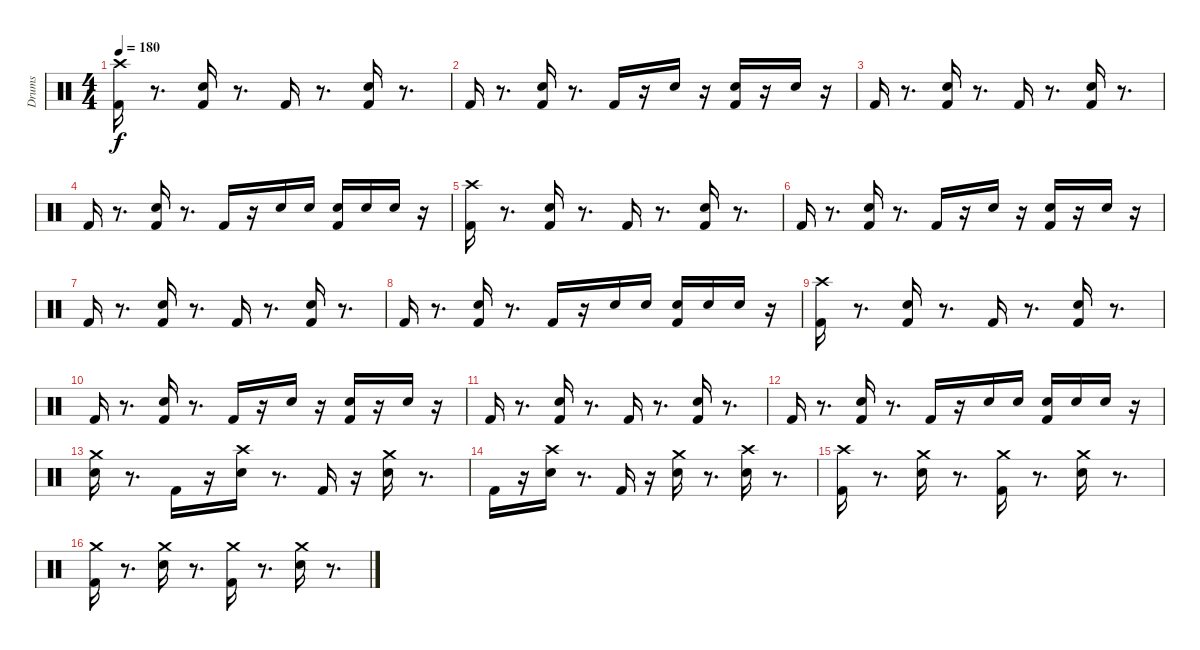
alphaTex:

\track ("Drums" "Drums") {instrument percussion}
\staff {score}
\articulation defaults
\ts (4 4)
\tempo 180
\clef neutral
\ks c
("Kick (hit) 2" "Crash high (hit)").16{dy f} r.8{d} ("Kick (hit) 2" "Snare (hit) 2").16 r.8{d} "Kick (hit) 2".16 r.8{d} ("Kick (hit) 2" "Snare (hit) 2").16 r.8{d} |
"Kick (hit) 2".16 r.8{d} ("Kick (hit) 2" "Snare (hit) 2").16 r.8{d} "Kick (hit) 2".16 r.16 "Snare (hit) 2".16 r.16 ("Kick (hit) 2" "Snare (hit) 2").16 r.16 "Snare (hit) 2".16 r.16 |
"Kick (hit) 2".16 r.8{d} ("Kick (hit) 2" "Snare (hit) 2").16 r.8{d} "Kick (hit) 2".16 r.8{d} ("Kick (hit) 2" "Snare (hit) 2").16 r.8{d} |
"Kick (hit) 2".16 r.8{d} ("Kick (hit) 2" "Snare (hit) 2").16 r.8{d} "Kick (hit) 2".16 r.16 "Snare (hit) 2".16 "Snare (hit) 2".16 ("Kick (hit) 2" "Snare (hit) 2").16 "Snare (hit) 2".16 "Snare (hit) 2".16 r.16 |
("Kick (hit) 2" "Crash high (hit)").16 r.8{d} ("Kick (hit) 2" "Snare (hit) 2").16 r.8{d} "Kick (hit) 2".16 r.8{d} ("Kick (hit) 2" "Snare (hit) 2").16 r.8{d} |
"Kick (hit) 2".16 r.8{d} ("Kick (hit) 2" "Snare (hit) 2").16 r.8{d} "Kick (hit) 2".16 r.16 "Snare (hit) 2".16 r.16 ("Kick (hit) 2" "Snare (hit) 2").16 r.16 "Snare (hit) 2".16 r.16 |
"Kick (hit) 2".16 r.8{d} ("Kick (hit) 2" "Snare (hit) 2").16 r.8{d} "Kick (hit) 2".16 r.8{d} ("Kick (hit) 2" "Snare (hit) 2").16 r.8{d} |
"Kick (hit) 2".16 r.8{d} ("Kick (hit) 2" "Snare (hit) 2").16 r.8{d} "Kick (hit) 2".16 r.16 "Snare (hit) 2".16 "Snare (hit) 2".16 ("Kick (hit) 2" "Snare (hit) 2").16 "Snare (hit) 2".16 "Snare (hit) 2".16 r.16 |
("Kick (hit) 2" "Crash high (hit)").16 r.8{d} ("Kick (hit) 2" "Snare (hit) 2").16 r.8{d} "Kick (hit) 2".16 r.8{d} ("Kick (hit) 2" "Snare (hit) 2").16 r.8{d} |
"Kick (hit) 2".16 r.8{d} ("Kick (hit) 2" "Snare (hit) 2").16 r.8{d} "Kick (hit) 2".16 r.16 "Snare (hit) 2".16 r.16 ("Kick (hit) 2" "Snare (hit) 2").16 r.16 "Snare (hit) 2".16 r.16 |
"Kick (hit) 2".16 r.8{d} ("Kick (hit) 2" "Snare (hit) 2").16 r.8{d} "Kick (hit) 2".16 r.8{d} ("Kick (hit) 2" "Snare (hit) 2").16 r.8{d} |
"Kick (hit) 2".16 r.8{d} ("Kick (hit) 2" "Snare (hit) 2").16 r.8{d} "Kick (hit) 2".16 r.16 "Snare (hit) 2".16 "Snare (hit) 2".16 ("Kick (hit) 2" "Snare (hit) 2").16 "Snare (hit) 2".16 "Snare (hit) 2".16 r.16 |
("Crash medium (hit)" "Snare (hit) 2").16 r.8{d} "Kick (hit) 2".16 r.16 ("Snare (hit) 2" "Crash high (hit)").16 r.8{d} "Kick (hit) 2".16 r.16 ("Snare (hit) 2" "Crash medium (hit)").16 r.8{d} |
"Kick (hit) 2".16 r.16 ("Snare (hit) 2" "Crash high (hit)").16 r.8{d} "Kick (hit) 2".16 r.16 ("Snare (hit) 2" "Crash medium (hit)").16 r.8{d} ("Snare (hit) 2" "Crash high (hit)").16 r.8{d} |
("Kick (hit) 2" "Crash high (hit)").16 r.8{d} ("Snare (hit) 2" "Crash medium (hit)").16 r.8{d} ("Kick (hit) 2" "Crash medium (hit)").16 r.8{d} ("Snare (hit) 2" "Crash medium (hit)").16 r.8{d} |
("Kick (hit) 2" "Crash medium (hit)").16 r.8{d} ("Snare (hit) 2" "Crash medium (hit)").16 r.8{d} ("Kick (hit) 2" "Crash medium (hit)").16 r.8{d} ("Snare (hit) 2" "Crash medium (hit)").16 r.8{d}
